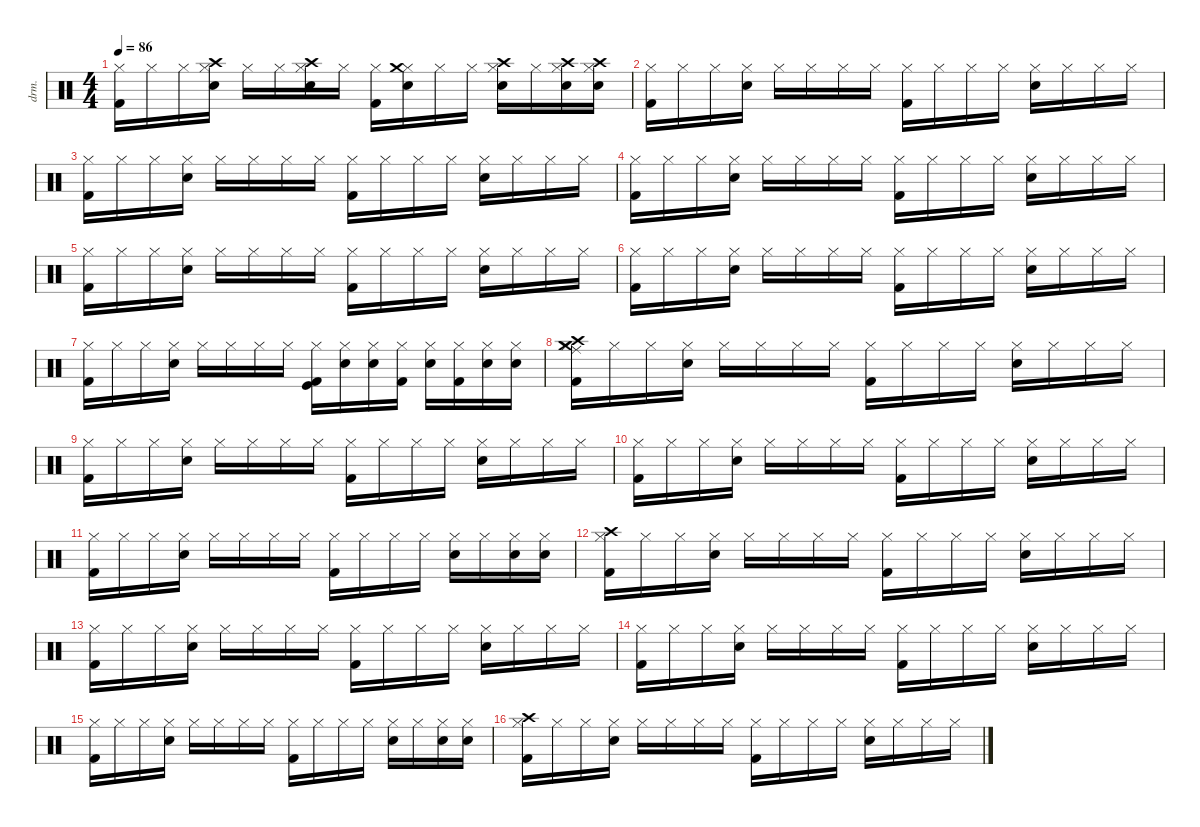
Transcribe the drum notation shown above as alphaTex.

\defaultSystemsLayout 4
\hideDynamics
\bracketExtendMode nobrackets
\otherSystemsTrackNameOrientation horizontal
\track ("Drums" "drm.") {instrument percussion}
\staff {score}
\articulation defaults
\ts (4 4)
\tempo 86
\clef neutral
\ks c
("Hi-Hat (closed)" "Kick (hit) 2").16{dy mf beam Down} "Hi-Hat (closed)".16{beam Down} "Hi-Hat (closed)".16{beam Down} ("Hi-Hat (closed)" "Snare (hit) 2" "Crash high (hit)").16{beam Down} "Hi-Hat (closed)".16{beam Down} "Hi-Hat (closed)".16{beam Down} ("Hi-Hat (closed)" "Snare (hit) 2" "Crash high (hit)").16{beam Down} "Hi-Hat (closed)".16{beam Down} ("Hi-Hat (closed)" "Kick (hit) 2").16{beam Down} ("Hi-Hat (closed)" "Snare (hit) 2" "Crash medium (hit)").16{beam Down} "Hi-Hat (closed)".16{beam Down} "Hi-Hat (closed)".16{beam Down} ("Hi-Hat (closed)" "Snare (hit) 2" "Crash high (hit)").16{beam Down} "Hi-Hat (closed)".16{beam Down} ("Hi-Hat (closed)" "Snare (hit) 2" "Crash high (hit)").16{beam Down} ("Hi-Hat (closed)" "Snare (hit) 2" "Crash high (hit)").16{beam Down} |
("Hi-Hat (closed)" "Kick (hit) 2").16{beam Down} "Hi-Hat (closed)".16{beam Down} "Hi-Hat (closed)".16{beam Down} ("Hi-Hat (closed)" "Snare (hit) 2").16{beam Down} "Hi-Hat (closed)".16{beam Down} "Hi-Hat (closed)".16{beam Down} "Hi-Hat (closed)".16{beam Down} "Hi-Hat (closed)".16{beam Down} ("Hi-Hat (closed)" "Kick (hit) 2").16{beam Down} "Hi-Hat (closed)".16{beam Down} "Hi-Hat (closed)".16{beam Down} "Hi-Hat (closed)".16{beam Down} ("Hi-Hat (closed)" "Snare (hit) 2").16{beam Down} "Hi-Hat (closed)".16{beam Down} "Hi-Hat (closed)".16{beam Down} "Hi-Hat (closed)".16{beam Down} |
("Hi-Hat (closed)" "Kick (hit) 2").16{beam Down} "Hi-Hat (closed)".16{beam Down} "Hi-Hat (closed)".16{beam Down} ("Hi-Hat (closed)" "Snare (hit) 2").16{beam Down} "Hi-Hat (closed)".16{beam Down} "Hi-Hat (closed)".16{beam Down} "Hi-Hat (closed)".16{beam Down} "Hi-Hat (closed)".16{beam Down} ("Hi-Hat (closed)" "Kick (hit) 2").16{beam Down} "Hi-Hat (closed)".16{beam Down} "Hi-Hat (closed)".16{beam Down} "Hi-Hat (closed)".16{beam Down} ("Hi-Hat (closed)" "Snare (hit) 2").16{beam Down} "Hi-Hat (closed)".16{beam Down} "Hi-Hat (closed)".16{beam Down} "Hi-Hat (closed)".16{beam Down} |
("Hi-Hat (closed)" "Kick (hit) 2").16{beam Down} "Hi-Hat (closed)".16{beam Down} "Hi-Hat (closed)".16{beam Down} ("Hi-Hat (closed)" "Snare (hit) 2").16{beam Down} "Hi-Hat (closed)".16{beam Down} "Hi-Hat (closed)".16{beam Down} "Hi-Hat (closed)".16{beam Down} "Hi-Hat (closed)".16{beam Down} ("Hi-Hat (closed)" "Kick (hit) 2").16{beam Down} "Hi-Hat (closed)".16{beam Down} "Hi-Hat (closed)".16{beam Down} "Hi-Hat (closed)".16{beam Down} ("Hi-Hat (closed)" "Snare (hit) 2").16{beam Down} "Hi-Hat (closed)".16{beam Down} "Hi-Hat (closed)".16{beam Down} "Hi-Hat (closed)".16{beam Down} |
("Hi-Hat (closed)" "Kick (hit) 2").16{beam Down} "Hi-Hat (closed)".16{beam Down} "Hi-Hat (closed)".16{beam Down} ("Hi-Hat (closed)" "Snare (hit) 2").16{beam Down} "Hi-Hat (closed)".16{beam Down} "Hi-Hat (closed)".16{beam Down} "Hi-Hat (closed)".16{beam Down} "Hi-Hat (closed)".16{beam Down} ("Hi-Hat (closed)" "Kick (hit) 2").16{beam Down} "Hi-Hat (closed)".16{beam Down} "Hi-Hat (closed)".16{beam Down} "Hi-Hat (closed)".16{beam Down} ("Hi-Hat (closed)" "Snare (hit) 2").16{beam Down} "Hi-Hat (closed)".16{beam Down} "Hi-Hat (closed)".16{beam Down} "Hi-Hat (closed)".16{beam Down} |
("Hi-Hat (closed)" "Kick (hit) 2").16{beam Down} "Hi-Hat (closed)".16{beam Down} "Hi-Hat (closed)".16{beam Down} ("Hi-Hat (closed)" "Snare (hit) 2").16{beam Down} "Hi-Hat (closed)".16{beam Down} "Hi-Hat (closed)".16{beam Down} "Hi-Hat (closed)".16{beam Down} "Hi-Hat (closed)".16{beam Down} ("Hi-Hat (closed)" "Kick (hit) 2").16{beam Down} "Hi-Hat (closed)".16{beam Down} "Hi-Hat (closed)".16{beam Down} "Hi-Hat (closed)".16{beam Down} ("Hi-Hat (closed)" "Snare (hit) 2").16{beam Down} "Hi-Hat (closed)".16{beam Down} "Hi-Hat (closed)".16{beam Down} "Hi-Hat (closed)".16{beam Down} |
("Hi-Hat (closed)" "Kick (hit) 2").16{beam Down} "Hi-Hat (closed)".16{beam Down} "Hi-Hat (closed)".16{beam Down} ("Hi-Hat (closed)" "Snare (hit) 2").16{beam Down} "Hi-Hat (closed)".16{beam Down} "Hi-Hat (closed)".16{beam Down} "Hi-Hat (closed)".16{beam Down} "Hi-Hat (closed)".16{beam Down} ("Hi-Hat (closed)" "Kick (hit)" "Kick (hit) 2").16{beam Down} ("Hi-Hat (closed)" "Snare (hit) 2").16{beam Down} ("Hi-Hat (closed)" "Snare (hit) 2").16{beam Down} ("Hi-Hat (closed)" "Kick (hit) 2").16{beam Down} ("Hi-Hat (closed)" "Snare (hit) 2").16{beam Down} ("Hi-Hat (closed)" "Kick (hit) 2").16{beam Down} ("Hi-Hat (closed)" "Snare (hit) 2").16{beam Down} ("Hi-Hat (closed)" "Snare (hit) 2").16{beam Down} |
("Hi-Hat (closed)" "Crash high (hit)" "Ride (middle)" "Crash medium (hit)" "Kick (hit) 2").16{beam Down} "Hi-Hat (closed)".16{beam Down} "Hi-Hat (closed)".16{beam Down} ("Hi-Hat (closed)" "Snare (hit) 2").16{beam Down} "Hi-Hat (closed)".16{beam Down} "Hi-Hat (closed)".16{beam Down} "Hi-Hat (closed)".16{beam Down} "Hi-Hat (closed)".16{beam Down} ("Hi-Hat (closed)" "Kick (hit) 2").16{beam Down} "Hi-Hat (closed)".16{beam Down} "Hi-Hat (closed)".16{beam Down} "Hi-Hat (closed)".16{beam Down} ("Hi-Hat (closed)" "Snare (hit) 2").16{beam Down} "Hi-Hat (closed)".16{beam Down} "Hi-Hat (closed)".16{beam Down} "Hi-Hat (closed)".16{beam Down} |
("Hi-Hat (closed)" "Kick (hit) 2").16{beam Down} "Hi-Hat (closed)".16{beam Down} "Hi-Hat (closed)".16{beam Down} ("Hi-Hat (closed)" "Snare (hit) 2").16{beam Down} "Hi-Hat (closed)".16{beam Down} "Hi-Hat (closed)".16{beam Down} "Hi-Hat (closed)".16{beam Down} "Hi-Hat (closed)".16{beam Down} ("Hi-Hat (closed)" "Kick (hit) 2").16{beam Down} "Hi-Hat (closed)".16{beam Down} "Hi-Hat (closed)".16{beam Down} "Hi-Hat (closed)".16{beam Down} ("Hi-Hat (closed)" "Snare (hit) 2").16{beam Down} "Hi-Hat (closed)".16{beam Down} "Hi-Hat (closed)".16{beam Down} "Hi-Hat (closed)".16{beam Down} |
("Hi-Hat (closed)" "Kick (hit) 2").16{beam Down} "Hi-Hat (closed)".16{beam Down} "Hi-Hat (closed)".16{beam Down} ("Hi-Hat (closed)" "Snare (hit) 2").16{beam Down} "Hi-Hat (closed)".16{beam Down} "Hi-Hat (closed)".16{beam Down} "Hi-Hat (closed)".16{beam Down} "Hi-Hat (closed)".16{beam Down} ("Hi-Hat (closed)" "Kick (hit) 2").16{beam Down} "Hi-Hat (closed)".16{beam Down} "Hi-Hat (closed)".16{beam Down} "Hi-Hat (closed)".16{beam Down} ("Hi-Hat (closed)" "Snare (hit) 2").16{beam Down} "Hi-Hat (closed)".16{beam Down} "Hi-Hat (closed)".16{beam Down} "Hi-Hat (closed)".16{beam Down} |
("Hi-Hat (closed)" "Kick (hit) 2").16{beam Down} "Hi-Hat (closed)".16{beam Down} "Hi-Hat (closed)".16{beam Down} ("Hi-Hat (closed)" "Snare (hit) 2").16{beam Down} "Hi-Hat (closed)".16{beam Down} "Hi-Hat (closed)".16{beam Down} "Hi-Hat (closed)".16{beam Down} "Hi-Hat (closed)".16{beam Down} ("Hi-Hat (closed)" "Kick (hit) 2").16{beam Down} "Hi-Hat (closed)".16{beam Down} "Hi-Hat (closed)".16{beam Down} "Hi-Hat (closed)".16{beam Down} ("Hi-Hat (closed)" "Snare (hit) 2").16{beam Down} "Hi-Hat (closed)".16{beam Down} ("Hi-Hat (closed)" "Snare (hit) 2").16{beam Down} ("Hi-Hat (closed)" "Snare (hit) 2").16{beam Down} |
("Hi-Hat (closed)" "Crash high (hit)" "Kick (hit) 2").16{beam Down} "Hi-Hat (closed)".16{beam Down} "Hi-Hat (closed)".16{beam Down} ("Hi-Hat (closed)" "Snare (hit) 2").16{beam Down} "Hi-Hat (closed)".16{beam Down} "Hi-Hat (closed)".16{beam Down} "Hi-Hat (closed)".16{beam Down} "Hi-Hat (closed)".16{beam Down} ("Hi-Hat (closed)" "Kick (hit) 2").16{beam Down} "Hi-Hat (closed)".16{beam Down} "Hi-Hat (closed)".16{beam Down} "Hi-Hat (closed)".16{beam Down} ("Hi-Hat (closed)" "Snare (hit) 2").16{beam Down} "Hi-Hat (closed)".16{beam Down} "Hi-Hat (closed)".16{beam Down} "Hi-Hat (closed)".16{beam Down} |
("Hi-Hat (closed)" "Kick (hit) 2").16{beam Down} "Hi-Hat (closed)".16{beam Down} "Hi-Hat (closed)".16{beam Down} ("Hi-Hat (closed)" "Snare (hit) 2").16{beam Down} "Hi-Hat (closed)".16{beam Down} "Hi-Hat (closed)".16{beam Down} "Hi-Hat (closed)".16{beam Down} "Hi-Hat (closed)".16{beam Down} ("Hi-Hat (closed)" "Kick (hit) 2").16{beam Down} "Hi-Hat (closed)".16{beam Down} "Hi-Hat (closed)".16{beam Down} "Hi-Hat (closed)".16{beam Down} ("Hi-Hat (closed)" "Snare (hit) 2").16{beam Down} "Hi-Hat (closed)".16{beam Down} "Hi-Hat (closed)".16{beam Down} "Hi-Hat (closed)".16{beam Down} |
("Hi-Hat (closed)" "Kick (hit) 2").16{beam Down} "Hi-Hat (closed)".16{beam Down} "Hi-Hat (closed)".16{beam Down} ("Hi-Hat (closed)" "Snare (hit) 2").16{beam Down} "Hi-Hat (closed)".16{beam Down} "Hi-Hat (closed)".16{beam Down} "Hi-Hat (closed)".16{beam Down} "Hi-Hat (closed)".16{beam Down} ("Hi-Hat (closed)" "Kick (hit) 2").16{beam Down} "Hi-Hat (closed)".16{beam Down} "Hi-Hat (closed)".16{beam Down} "Hi-Hat (closed)".16{beam Down} ("Hi-Hat (closed)" "Snare (hit) 2").16{beam Down} "Hi-Hat (closed)".16{beam Down} "Hi-Hat (closed)".16{beam Down} "Hi-Hat (closed)".16{beam Down} |
("Hi-Hat (closed)" "Kick (hit) 2").16{beam Down} "Hi-Hat (closed)".16{beam Down} "Hi-Hat (closed)".16{beam Down} ("Hi-Hat (closed)" "Snare (hit) 2").16{beam Down} "Hi-Hat (closed)".16{beam Down} "Hi-Hat (closed)".16{beam Down} "Hi-Hat (closed)".16{beam Down} "Hi-Hat (closed)".16{beam Down} ("Hi-Hat (closed)" "Kick (hit) 2").16{beam Down} "Hi-Hat (closed)".16{beam Down} "Hi-Hat (closed)".16{beam Down} "Hi-Hat (closed)".16{beam Down} ("Hi-Hat (closed)" "Snare (hit) 2").16{beam Down} "Hi-Hat (closed)".16{beam Down} ("Hi-Hat (closed)" "Snare (hit) 2").16{beam Down} ("Hi-Hat (closed)" "Snare (hit) 2").16{beam Down} |
("Hi-Hat (closed)" "Crash high (hit)" "Kick (hit) 2").16{beam Down} "Hi-Hat (closed)".16{beam Down} "Hi-Hat (closed)".16{beam Down} ("Hi-Hat (closed)" "Snare (hit) 2").16{beam Down} "Hi-Hat (closed)".16{beam Down} "Hi-Hat (closed)".16{beam Down} "Hi-Hat (closed)".16{beam Down} "Hi-Hat (closed)".16{beam Down} ("Hi-Hat (closed)" "Kick (hit) 2").16{beam Down} "Hi-Hat (closed)".16{beam Down} "Hi-Hat (closed)".16{beam Down} "Hi-Hat (closed)".16{beam Down} ("Hi-Hat (closed)" "Snare (hit) 2").16{beam Down} "Hi-Hat (closed)".16{beam Down} "Hi-Hat (closed)".16{beam Down} "Hi-Hat (closed)".16{beam Down}
